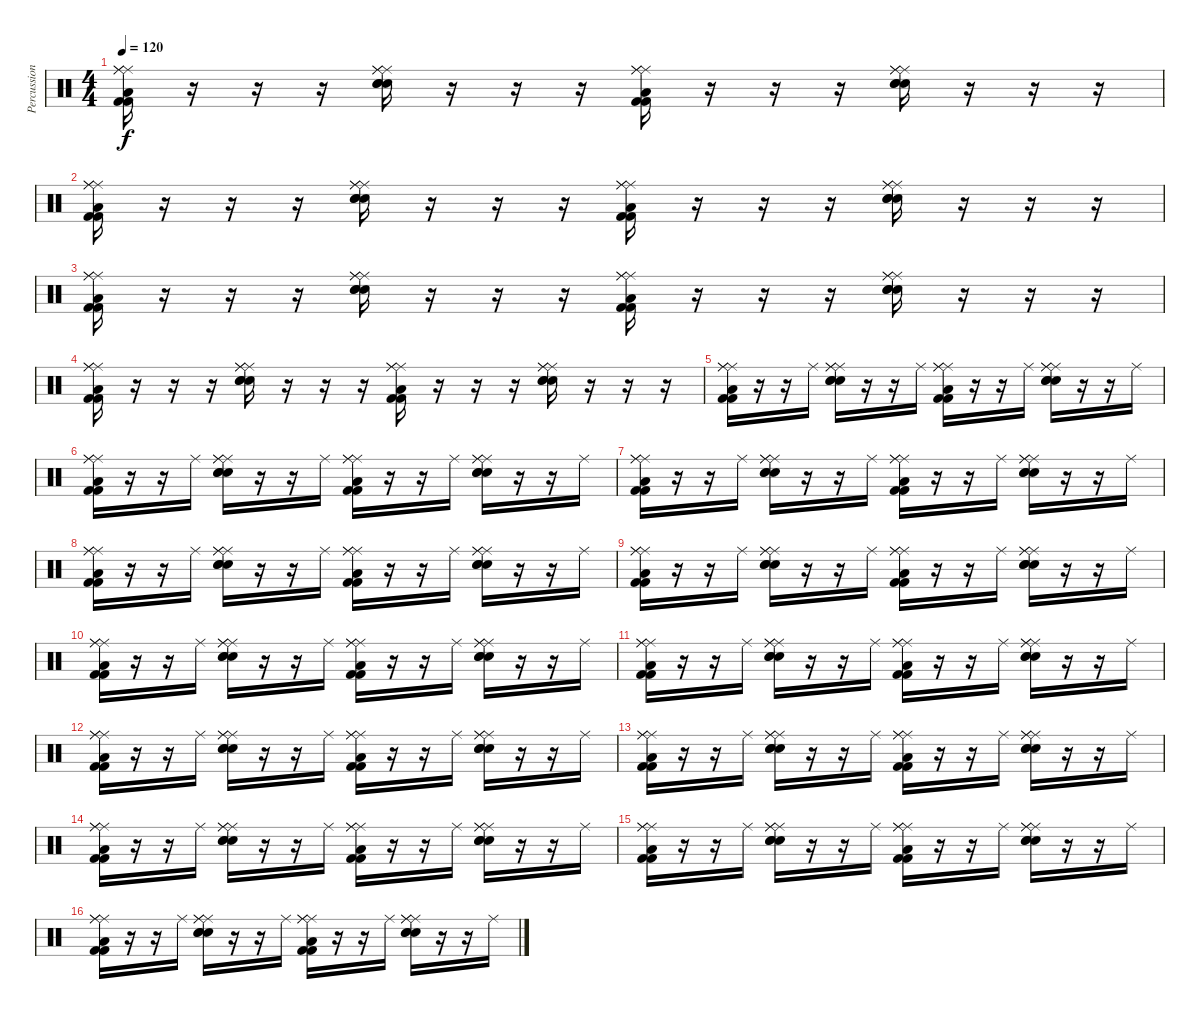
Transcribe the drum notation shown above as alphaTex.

\track ("Percussion" "Percussion") {instrument percussion}
\staff {score}
\articulation defaults
\ts (4 4)
\tempo 120
\clef neutral
\ks c
("Ride (middle)" "Ride (middle)" "Ride (middle)" "Low Floor Tom (hit)" "Kick (hit) 2" "Kick (hit) 2").16{dy f} r.16 r.16 r.16 ("Ride (middle)" "Ride (middle)" "Ride (middle)" "Snare (hit) 2" "Snare (hit) 2" "Snare (hit) 2").16 r.16 r.16 r.16 ("Ride (middle)" "Ride (middle)" "Ride (middle)" "Low Floor Tom (hit)" "Kick (hit) 2" "Kick (hit) 2").16 r.16 r.16 r.16 ("Ride (middle)" "Ride (middle)" "Ride (middle)" "Snare (hit) 2" "Snare (hit) 2" "Snare (hit) 2").16 r.16 r.16 r.16 |
("Ride (middle)" "Ride (middle)" "Ride (middle)" "Low Floor Tom (hit)" "Kick (hit) 2" "Kick (hit) 2").16 r.16 r.16 r.16 ("Ride (middle)" "Ride (middle)" "Ride (middle)" "Snare (hit) 2" "Snare (hit) 2" "Snare (hit) 2").16 r.16 r.16 r.16 ("Ride (middle)" "Ride (middle)" "Ride (middle)" "Low Floor Tom (hit)" "Kick (hit) 2" "Kick (hit) 2").16 r.16 r.16 r.16 ("Ride (middle)" "Ride (middle)" "Ride (middle)" "Snare (hit) 2" "Snare (hit) 2" "Snare (hit) 2").16 r.16 r.16 r.16 |
("Ride (middle)" "Ride (middle)" "Ride (middle)" "Low Floor Tom (hit)" "Kick (hit) 2" "Kick (hit) 2").16 r.16 r.16 r.16 ("Ride (middle)" "Ride (middle)" "Ride (middle)" "Snare (hit) 2" "Snare (hit) 2" "Snare (hit) 2").16 r.16 r.16 r.16 ("Ride (middle)" "Ride (middle)" "Ride (middle)" "Low Floor Tom (hit)" "Kick (hit) 2" "Kick (hit) 2").16 r.16 r.16 r.16 ("Ride (middle)" "Ride (middle)" "Ride (middle)" "Snare (hit) 2" "Snare (hit) 2" "Snare (hit) 2").16 r.16 r.16 r.16 |
("Ride (middle)" "Ride (middle)" "Ride (middle)" "Low Floor Tom (hit)" "Kick (hit) 2" "Kick (hit) 2").16 r.16 r.16 r.16 ("Ride (middle)" "Ride (middle)" "Ride (middle)" "Snare (hit) 2" "Snare (hit) 2" "Snare (hit) 2").16 r.16 r.16 r.16 ("Ride (middle)" "Ride (middle)" "Ride (middle)" "Low Floor Tom (hit)" "Kick (hit) 2" "Kick (hit) 2").16 r.16 r.16 r.16 ("Ride (middle)" "Ride (middle)" "Ride (middle)" "Snare (hit) 2" "Snare (hit) 2" "Snare (hit) 2").16 r.16 r.16 r.16 |
("Ride (middle)" "Ride (middle)" "Ride (middle)" "Low Floor Tom (hit)" "Kick (hit) 2" "Kick (hit) 2").16 r.16 r.16 "Ride (middle)".16 ("Ride (middle)" "Ride (middle)" "Ride (middle)" "Snare (hit) 2" "Snare (hit) 2" "Snare (hit) 2").16 r.16 r.16 "Ride (middle)".16 ("Ride (middle)" "Ride (middle)" "Ride (middle)" "Low Floor Tom (hit)" "Kick (hit) 2" "Kick (hit) 2").16 r.16 r.16 "Ride (middle)".16 ("Ride (middle)" "Ride (middle)" "Ride (middle)" "Snare (hit) 2" "Snare (hit) 2" "Snare (hit) 2").16 r.16 r.16 "Ride (middle)".16 |
("Ride (middle)" "Ride (middle)" "Ride (middle)" "Low Floor Tom (hit)" "Kick (hit) 2" "Kick (hit) 2").16 r.16 r.16 "Ride (middle)".16 ("Ride (middle)" "Ride (middle)" "Ride (middle)" "Snare (hit) 2" "Snare (hit) 2" "Snare (hit) 2").16 r.16 r.16 "Ride (middle)".16 ("Ride (middle)" "Ride (middle)" "Ride (middle)" "Low Floor Tom (hit)" "Kick (hit) 2" "Kick (hit) 2").16 r.16 r.16 "Ride (middle)".16 ("Ride (middle)" "Ride (middle)" "Ride (middle)" "Snare (hit) 2" "Snare (hit) 2" "Snare (hit) 2").16 r.16 r.16 "Ride (middle)".16 |
("Ride (middle)" "Ride (middle)" "Ride (middle)" "Low Floor Tom (hit)" "Kick (hit) 2" "Kick (hit) 2").16 r.16 r.16 "Ride (middle)".16 ("Ride (middle)" "Ride (middle)" "Ride (middle)" "Snare (hit) 2" "Snare (hit) 2" "Snare (hit) 2").16 r.16 r.16 "Ride (middle)".16 ("Ride (middle)" "Ride (middle)" "Ride (middle)" "Low Floor Tom (hit)" "Kick (hit) 2" "Kick (hit) 2").16 r.16 r.16 "Ride (middle)".16 ("Ride (middle)" "Ride (middle)" "Ride (middle)" "Snare (hit) 2" "Snare (hit) 2" "Snare (hit) 2").16 r.16 r.16 "Ride (middle)".16 |
("Ride (middle)" "Ride (middle)" "Ride (middle)" "Low Floor Tom (hit)" "Kick (hit) 2" "Kick (hit) 2").16 r.16 r.16 "Ride (middle)".16 ("Ride (middle)" "Ride (middle)" "Ride (middle)" "Snare (hit) 2" "Snare (hit) 2" "Snare (hit) 2").16 r.16 r.16 "Ride (middle)".16 ("Ride (middle)" "Ride (middle)" "Ride (middle)" "Low Floor Tom (hit)" "Kick (hit) 2" "Kick (hit) 2").16 r.16 r.16 "Ride (middle)".16 ("Ride (middle)" "Ride (middle)" "Ride (middle)" "Snare (hit) 2" "Snare (hit) 2" "Snare (hit) 2").16 r.16 r.16 "Ride (middle)".16 |
("Ride (middle)" "Ride (middle)" "Ride (middle)" "Low Floor Tom (hit)" "Kick (hit) 2" "Kick (hit) 2").16 r.16 r.16 "Ride (middle)".16 ("Ride (middle)" "Ride (middle)" "Ride (middle)" "Snare (hit) 2" "Snare (hit) 2" "Snare (hit) 2").16 r.16 r.16 "Ride (middle)".16 ("Ride (middle)" "Ride (middle)" "Ride (middle)" "Low Floor Tom (hit)" "Kick (hit) 2" "Kick (hit) 2").16 r.16 r.16 "Ride (middle)".16 ("Ride (middle)" "Ride (middle)" "Ride (middle)" "Snare (hit) 2" "Snare (hit) 2" "Snare (hit) 2").16 r.16 r.16 "Ride (middle)".16 |
("Ride (middle)" "Ride (middle)" "Ride (middle)" "Low Floor Tom (hit)" "Kick (hit) 2" "Kick (hit) 2").16 r.16 r.16 "Ride (middle)".16 ("Ride (middle)" "Ride (middle)" "Ride (middle)" "Snare (hit) 2" "Snare (hit) 2" "Snare (hit) 2").16 r.16 r.16 "Ride (middle)".16 ("Ride (middle)" "Ride (middle)" "Ride (middle)" "Low Floor Tom (hit)" "Kick (hit) 2" "Kick (hit) 2").16 r.16 r.16 "Ride (middle)".16 ("Ride (middle)" "Ride (middle)" "Ride (middle)" "Snare (hit) 2" "Snare (hit) 2" "Snare (hit) 2").16 r.16 r.16 "Ride (middle)".16 |
("Ride (middle)" "Ride (middle)" "Ride (middle)" "Low Floor Tom (hit)" "Kick (hit) 2" "Kick (hit) 2").16 r.16 r.16 "Ride (middle)".16 ("Ride (middle)" "Ride (middle)" "Ride (middle)" "Snare (hit) 2" "Snare (hit) 2" "Snare (hit) 2").16 r.16 r.16 "Ride (middle)".16 ("Ride (middle)" "Ride (middle)" "Ride (middle)" "Low Floor Tom (hit)" "Kick (hit) 2" "Kick (hit) 2").16 r.16 r.16 "Ride (middle)".16 ("Ride (middle)" "Ride (middle)" "Ride (middle)" "Snare (hit) 2" "Snare (hit) 2" "Snare (hit) 2").16 r.16 r.16 "Ride (middle)".16 |
("Ride (middle)" "Ride (middle)" "Ride (middle)" "Low Floor Tom (hit)" "Kick (hit) 2" "Kick (hit) 2").16 r.16 r.16 "Ride (middle)".16 ("Ride (middle)" "Ride (middle)" "Ride (middle)" "Snare (hit) 2" "Snare (hit) 2" "Snare (hit) 2").16 r.16 r.16 "Ride (middle)".16 ("Ride (middle)" "Ride (middle)" "Ride (middle)" "Low Floor Tom (hit)" "Kick (hit) 2" "Kick (hit) 2").16 r.16 r.16 "Ride (middle)".16 ("Ride (middle)" "Ride (middle)" "Ride (middle)" "Snare (hit) 2" "Snare (hit) 2" "Snare (hit) 2").16 r.16 r.16 "Ride (middle)".16 |
("Ride (middle)" "Ride (middle)" "Ride (middle)" "Low Floor Tom (hit)" "Kick (hit) 2" "Kick (hit) 2").16 r.16 r.16 "Ride (middle)".16 ("Ride (middle)" "Ride (middle)" "Ride (middle)" "Snare (hit) 2" "Snare (hit) 2" "Snare (hit) 2").16 r.16 r.16 "Ride (middle)".16 ("Ride (middle)" "Ride (middle)" "Ride (middle)" "Low Floor Tom (hit)" "Kick (hit) 2" "Kick (hit) 2").16 r.16 r.16 "Ride (middle)".16 ("Ride (middle)" "Ride (middle)" "Ride (middle)" "Snare (hit) 2" "Snare (hit) 2" "Snare (hit) 2").16 r.16 r.16 "Ride (middle)".16 |
("Ride (middle)" "Ride (middle)" "Ride (middle)" "Low Floor Tom (hit)" "Kick (hit) 2" "Kick (hit) 2").16 r.16 r.16 "Ride (middle)".16 ("Ride (middle)" "Ride (middle)" "Ride (middle)" "Snare (hit) 2" "Snare (hit) 2" "Snare (hit) 2").16 r.16 r.16 "Ride (middle)".16 ("Ride (middle)" "Ride (middle)" "Ride (middle)" "Low Floor Tom (hit)" "Kick (hit) 2" "Kick (hit) 2").16 r.16 r.16 "Ride (middle)".16 ("Ride (middle)" "Ride (middle)" "Ride (middle)" "Snare (hit) 2" "Snare (hit) 2" "Snare (hit) 2").16 r.16 r.16 "Ride (middle)".16 |
("Ride (middle)" "Ride (middle)" "Ride (middle)" "Low Floor Tom (hit)" "Kick (hit) 2" "Kick (hit) 2").16 r.16 r.16 "Ride (middle)".16 ("Ride (middle)" "Ride (middle)" "Ride (middle)" "Snare (hit) 2" "Snare (hit) 2" "Snare (hit) 2").16 r.16 r.16 "Ride (middle)".16 ("Ride (middle)" "Ride (middle)" "Ride (middle)" "Low Floor Tom (hit)" "Kick (hit) 2" "Kick (hit) 2").16 r.16 r.16 "Ride (middle)".16 ("Ride (middle)" "Ride (middle)" "Ride (middle)" "Snare (hit) 2" "Snare (hit) 2" "Snare (hit) 2").16 r.16 r.16 "Ride (middle)".16 |
("Ride (middle)" "Ride (middle)" "Ride (middle)" "Low Floor Tom (hit)" "Kick (hit) 2" "Kick (hit) 2").16 r.16 r.16 "Ride (middle)".16 ("Ride (middle)" "Ride (middle)" "Ride (middle)" "Snare (hit) 2" "Snare (hit) 2" "Snare (hit) 2").16 r.16 r.16 "Ride (middle)".16 ("Ride (middle)" "Ride (middle)" "Ride (middle)" "Low Floor Tom (hit)" "Kick (hit) 2" "Kick (hit) 2").16 r.16 r.16 "Ride (middle)".16 ("Ride (middle)" "Ride (middle)" "Ride (middle)" "Snare (hit) 2" "Snare (hit) 2" "Snare (hit) 2").16 r.16 r.16 "Ride (middle)".16
